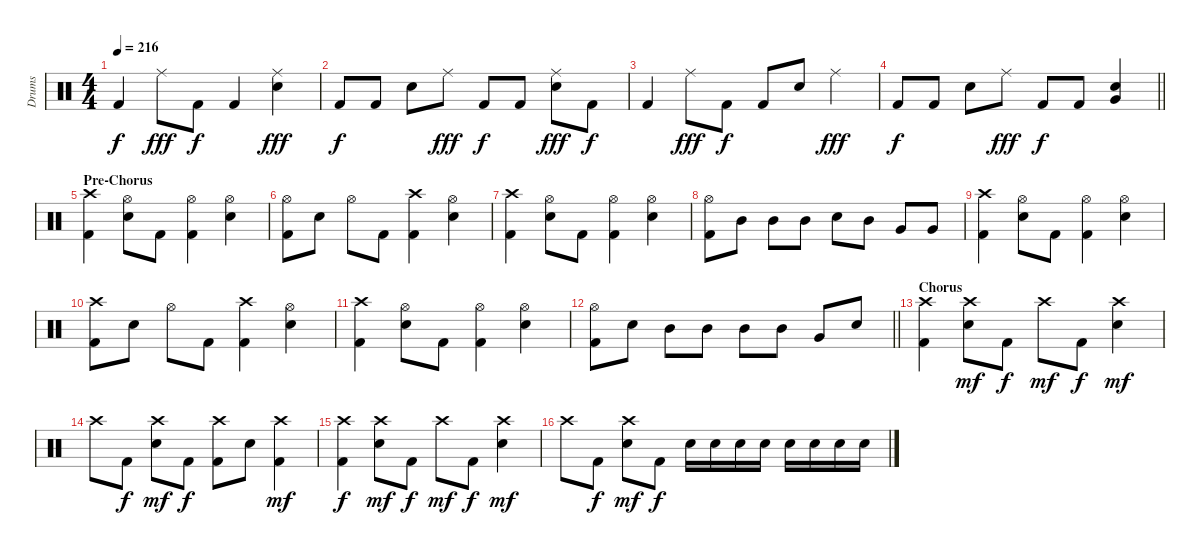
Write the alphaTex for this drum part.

\track ("Drums" "Drums") {instrument percussion}
\staff {score}
\articulation defaults
\ts (4 4)
\tempo 216
\clef neutral
\ks c "Kick (hit) 2".4{dy f} "Ride (middle)".8{dy fff} "Kick (hit) 2".8{dy f} "Kick (hit) 2".4
("Ride (middle)" "Electric Snare (hit)").4{dy fff} |
"Kick (hit) 2".8{dy f} "Kick (hit) 2".8 "Electric Snare (hit)".8 "Ride (middle)".8{dy fff} "Kick (hit) 2".8{dy f} "Kick (hit) 2".8 ("Ride (middle)" "Electric Snare (hit)").8{dy fff} "Kick (hit) 2".8{dy f} |
"Kick (hit) 2".4 "Ride (middle)".8{dy fff} "Kick (hit) 2".8{dy f} "Kick (hit) 2".8 "Electric Snare (hit)".8 "Ride (middle)".4{dy fff} |
\barLineRight lightlight "Kick (hit) 2".8{dy f} "Kick (hit) 2".8 "Electric Snare (hit)".8 "Ride (middle)".8{dy fff} "Kick (hit) 2".8{dy f} "Kick (hit) 2".8
("Very Low Tom (hit)" "Electric Snare (hit)").4 |
\section ("" "Pre-Chorus")
("Crash high (hit)" "Kick (hit) 2").4 ("Hi-Hat (open)" "Electric Snare (hit)").8 "Kick (hit) 2".8 ("Hi-Hat (open)" "Kick (hit) 2").4 ("Hi-Hat (open)" "Electric Snare (hit)").4 |
("Hi-Hat (open)" "Kick (hit) 2").8 "Electric Snare (hit)".8 "Hi-Hat (open)".8 "Kick (hit) 2".8 ("Crash high (hit)" "Kick (hit) 2").4 ("Hi-Hat (open)" "Electric Snare (hit)").4 |
("Crash high (hit)" "Kick (hit) 2").4 ("Hi-Hat (open)" "Electric Snare (hit)").8 "Kick (hit) 2".8 ("Hi-Hat (open)" "Kick (hit) 2").4 ("Hi-Hat (open)" "Electric Snare (hit)").4 |
("Hi-Hat (open)" "Kick (hit) 2").8 "Mid Tom (hit)".8 "Mid Tom (hit)".8 "Mid Tom (hit)".8 "Electric Snare (hit)".8 "Mid Tom (hit)".8 "Very Low Tom (hit)".8 "Very Low Tom (hit)".8 |
("Crash high (hit)" "Kick (hit) 2").4 ("Hi-Hat (open)" "Electric Snare (hit)").8 "Kick (hit) 2".8 ("Hi-Hat (open)" "Kick (hit) 2").4 ("Hi-Hat (open)" "Electric Snare (hit)").4 |
("Crash high (hit)" "Kick (hit) 2").8 "Electric Snare (hit)".8 "Hi-Hat (open)".8 "Kick (hit) 2".8 ("Crash high (hit)" "Kick (hit) 2").4 ("Hi-Hat (open)" "Electric Snare (hit)").4 |
("Crash high (hit)" "Kick (hit) 2").4 ("Hi-Hat (open)" "Electric Snare (hit)").8 "Kick (hit) 2".8 ("Hi-Hat (open)" "Kick (hit) 2").4 ("Hi-Hat (open)" "Electric Snare (hit)").4 |
\barLineRight lightlight
("Hi-Hat (open)" "Kick (hit) 2").8 "Electric Snare (hit)".8 "Mid Tom (hit)".8 "Mid Tom (hit)".8 "Mid Tom (hit)".8 "Mid Tom (hit)".8 "Very Low Tom (hit)".8 "Electric Snare (hit)".8 |
\section ("" "Chorus")
("Crash high (hit)" "Kick (hit) 2").4 ("Crash high (hit)" "Electric Snare (hit)").8{dy mf} "Kick (hit) 2".8{dy f} "Crash high (hit)".8{dy mf} "Kick (hit) 2".8{dy f} ("Crash high (hit)" "Electric Snare (hit)").4{dy mf} |
"Crash high (hit)".8 "Kick (hit) 2".8{dy f} ("Crash high (hit)" "Electric Snare (hit)").8{dy mf} "Kick (hit) 2".8{dy f} ("Crash high (hit)" "Kick (hit) 2").8 "Electric Snare (hit)".8 ("Crash high (hit)" "Kick (hit) 2").4{dy mf} |
("Crash high (hit)" "Kick (hit) 2").4{dy f} ("Crash high (hit)" "Electric Snare (hit)").8{dy mf} "Kick (hit) 2".8{dy f} "Crash high (hit)".8{dy mf} "Kick (hit) 2".8{dy f} ("Crash high (hit)" "Electric Snare (hit)").4{dy mf} |
"Crash high (hit)".8 "Kick (hit) 2".8{dy f} ("Crash high (hit)" "Electric Snare (hit)").8{dy mf} "Kick (hit) 2".8{dy f} "Electric Snare (hit)".16 "Electric Snare (hit)".16 "Electric Snare (hit)".16 "Electric Snare (hit)".16 "Electric Snare (hit)".16 "Electric Snare (hit)".16 "Electric Snare (hit)".16 "Electric Snare (hit)".16
